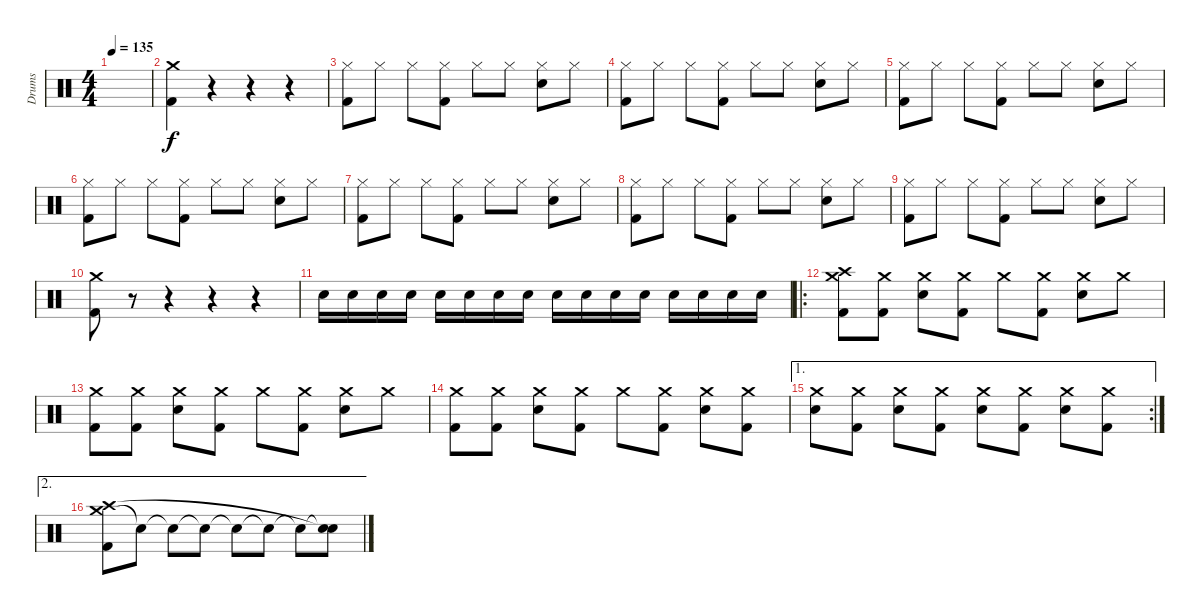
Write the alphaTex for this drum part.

\track ("Drums" "Drums") {instrument percussion}
\staff {score}
\articulation defaults
\ts (4 4)
\tempo 135
\clef neutral
\ks c
|
("Crash medium (hit)" "Kick (hit) 2").4 r.4 r.4 r.4 |
("Hi-Hat (closed)" "Kick (hit) 2").8 "Hi-Hat (closed)".8 "Hi-Hat (closed)".8 ("Hi-Hat (closed)" "Kick (hit) 2").8 "Hi-Hat (closed)".8 "Hi-Hat (closed)".8 ("Hi-Hat (closed)" "Electric Snare (hit)").8 "Hi-Hat (closed)".8 |
("Hi-Hat (closed)" "Kick (hit) 2").8 "Hi-Hat (closed)".8 "Hi-Hat (closed)".8 ("Hi-Hat (closed)" "Kick (hit) 2").8 "Hi-Hat (closed)".8 "Hi-Hat (closed)".8 ("Hi-Hat (closed)" "Electric Snare (hit)").8 "Hi-Hat (closed)".8 |
("Hi-Hat (closed)" "Kick (hit) 2").8 "Hi-Hat (closed)".8 "Hi-Hat (closed)".8 ("Hi-Hat (closed)" "Kick (hit) 2").8 "Hi-Hat (closed)".8 "Hi-Hat (closed)".8 ("Hi-Hat (closed)" "Electric Snare (hit)").8 "Hi-Hat (closed)".8 |
("Hi-Hat (closed)" "Kick (hit) 2").8 "Hi-Hat (closed)".8 "Hi-Hat (closed)".8 ("Hi-Hat (closed)" "Kick (hit) 2").8 "Hi-Hat (closed)".8 "Hi-Hat (closed)".8 ("Hi-Hat (closed)" "Electric Snare (hit)").8 "Hi-Hat (closed)".8 |
("Hi-Hat (closed)" "Kick (hit) 2").8 "Hi-Hat (closed)".8 "Hi-Hat (closed)".8 ("Hi-Hat (closed)" "Kick (hit) 2").8 "Hi-Hat (closed)".8 "Hi-Hat (closed)".8 ("Hi-Hat (closed)" "Electric Snare (hit)").8 "Hi-Hat (closed)".8 |
("Hi-Hat (closed)" "Kick (hit) 2").8 "Hi-Hat (closed)".8 "Hi-Hat (closed)".8 ("Hi-Hat (closed)" "Kick (hit) 2").8 "Hi-Hat (closed)".8 "Hi-Hat (closed)".8 ("Hi-Hat (closed)" "Electric Snare (hit)").8 "Hi-Hat (closed)".8 |
("Hi-Hat (closed)" "Kick (hit) 2").8 "Hi-Hat (closed)".8 "Hi-Hat (closed)".8 ("Hi-Hat (closed)" "Kick (hit) 2").8 "Hi-Hat (closed)".8 "Hi-Hat (closed)".8 ("Hi-Hat (closed)" "Electric Snare (hit)").8 "Hi-Hat (closed)".8 |
("Crash medium (hit)" "Kick (hit) 2").8 r.8 r.4 r.4 r.4 |
"Electric Snare (hit)".16 "Electric Snare (hit)".16 "Electric Snare (hit)".16 "Electric Snare (hit)".16 "Electric Snare (hit)".16 "Electric Snare (hit)".16 "Electric Snare (hit)".16 "Electric Snare (hit)".16 "Electric Snare (hit)".16 "Electric Snare (hit)".16 "Electric Snare (hit)".16 "Electric Snare (hit)".16 "Electric Snare (hit)".16 "Electric Snare (hit)".16 "Electric Snare (hit)".16 "Electric Snare (hit)".16 |
\ro
("Crash medium (hit)" "Crash high (hit)" "Kick (hit) 2").8 ("Crash medium (hit)" "Kick (hit) 2").8 ("Crash medium (hit)" "Electric Snare (hit)").8 ("Crash medium (hit)" "Kick (hit) 2").8 "Crash medium (hit)".8 ("Crash medium (hit)" "Kick (hit) 2").8 ("Crash medium (hit)" "Electric Snare (hit)").8 "Crash medium (hit)".8 |
("Crash medium (hit)" "Kick (hit) 2").8 ("Crash medium (hit)" "Kick (hit) 2").8 ("Crash medium (hit)" "Electric Snare (hit)").8 ("Crash medium (hit)" "Kick (hit) 2").8 "Crash medium (hit)".8 ("Crash medium (hit)" "Kick (hit) 2").8 ("Crash medium (hit)" "Electric Snare (hit)").8 "Crash medium (hit)".8 |
("Crash medium (hit)" "Kick (hit) 2").8 ("Crash medium (hit)" "Kick (hit) 2").8 ("Crash medium (hit)" "Electric Snare (hit)").8 ("Crash medium (hit)" "Kick (hit) 2").8 "Crash medium (hit)".8 ("Crash medium (hit)" "Kick (hit) 2").8 ("Crash medium (hit)" "Electric Snare (hit)").8 ("Crash medium (hit)" "Kick (hit) 2").8 |
\ae 1
\rc 2
("Crash medium (hit)" "Electric Snare (hit)").8 ("Crash medium (hit)" "Kick (hit) 2").8 ("Crash medium (hit)" "Electric Snare (hit)").8 ("Crash medium (hit)" "Kick (hit) 2").8 ("Crash medium (hit)" "Electric Snare (hit)").8 ("Crash medium (hit)" "Kick (hit) 2").8 ("Crash medium (hit)" "Electric Snare (hit)").8 ("Crash medium (hit)" "Kick (hit) 2").8 |
\ae 2
("Crash medium (hit)" "Crash high (hit)" "Kick (hit) 2").8 "Snare (hit)"{t}.8 "Snare (hit)"{t}.8 "Snare (hit)"{t}.8 "Snare (hit)"{t}.8 "Snare (hit)"{t}.8 "Snare (hit)"{t}.8 ("Snare (hit)"{t} "Snare (hit)"{t}).8
